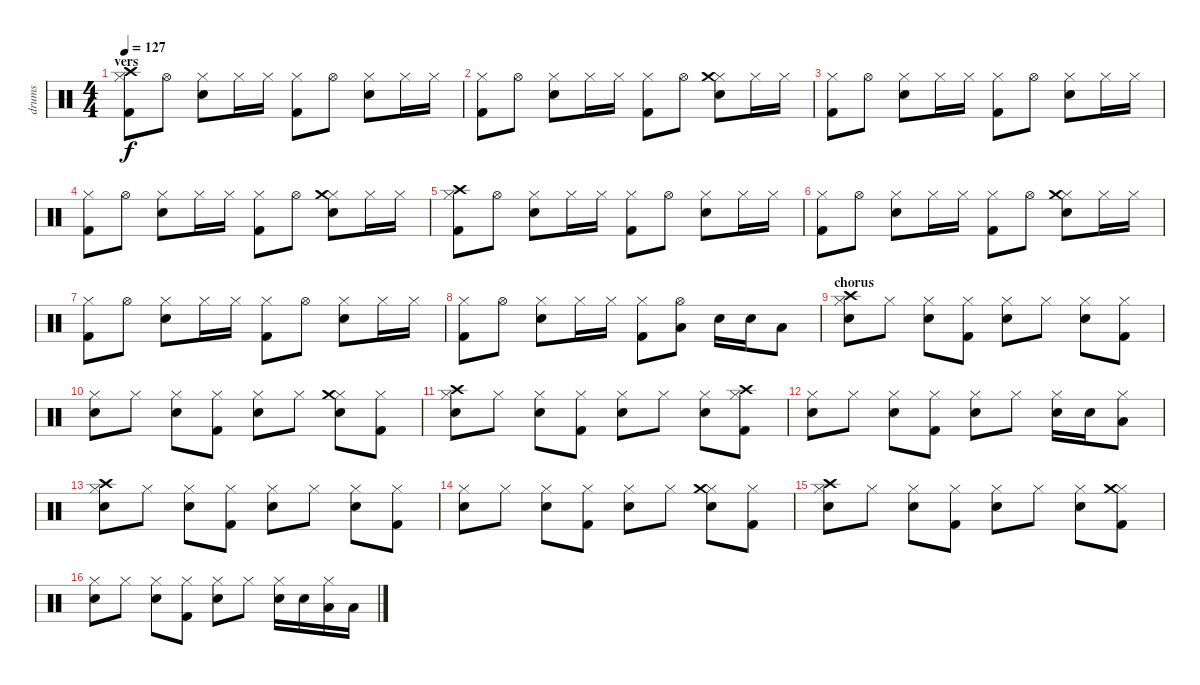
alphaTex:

\track ("drums" "drums") {instrument percussion}
\staff {score}
\articulation defaults
\ts (4 4)
\section ("" "vers")
\tempo 127
\clef neutral
\ks c
("Kick (hit) 2" "Crash high (hit)" "Hi-Hat (closed)").8{dy f} "Hi-Hat (open)".8 ("Electric Snare (hit)" "Hi-Hat (closed)").8 "Hi-Hat (closed)".16 "Hi-Hat (closed)".16 ("Kick (hit) 2" "Hi-Hat (closed)").8 "Hi-Hat (open)".8 ("Electric Snare (hit)" "Hi-Hat (closed)").8 "Hi-Hat (closed)".16 "Hi-Hat (closed)".16 |
("Kick (hit) 2" "Hi-Hat (closed)").8 "Hi-Hat (open)".8 ("Electric Snare (hit)" "Hi-Hat (closed)").8 "Hi-Hat (closed)".16 "Hi-Hat (closed)".16 ("Kick (hit) 2" "Hi-Hat (closed)").8 "Hi-Hat (open)".8 ("Electric Snare (hit)" "Hi-Hat (closed)" "Crash medium (hit)").8 "Hi-Hat (closed)".16 "Hi-Hat (closed)".16 |
("Kick (hit) 2" "Hi-Hat (closed)").8 "Hi-Hat (open)".8 ("Electric Snare (hit)" "Hi-Hat (closed)").8 "Hi-Hat (closed)".16 "Hi-Hat (closed)".16 ("Kick (hit) 2" "Hi-Hat (closed)").8 "Hi-Hat (open)".8 ("Electric Snare (hit)" "Hi-Hat (closed)").8 "Hi-Hat (closed)".16 "Hi-Hat (closed)".16 |
("Kick (hit) 2" "Hi-Hat (closed)").8 "Hi-Hat (open)".8 ("Electric Snare (hit)" "Hi-Hat (closed)").8 "Hi-Hat (closed)".16 "Hi-Hat (closed)".16 ("Kick (hit) 2" "Hi-Hat (closed)").8 "Hi-Hat (open)".8 ("Electric Snare (hit)" "Hi-Hat (closed)" "Crash medium (hit)").8 "Hi-Hat (closed)".16 "Hi-Hat (closed)".16 |
("Kick (hit) 2" "Crash high (hit)" "Hi-Hat (closed)").8 "Hi-Hat (open)".8 ("Electric Snare (hit)" "Hi-Hat (closed)").8 "Hi-Hat (closed)".16 "Hi-Hat (closed)".16 ("Kick (hit) 2" "Hi-Hat (closed)").8 "Hi-Hat (open)".8 ("Electric Snare (hit)" "Hi-Hat (closed)").8 "Hi-Hat (closed)".16 "Hi-Hat (closed)".16 |
("Kick (hit) 2" "Hi-Hat (closed)").8 "Hi-Hat (open)".8 ("Electric Snare (hit)" "Hi-Hat (closed)").8 "Hi-Hat (closed)".16 "Hi-Hat (closed)".16 ("Kick (hit) 2" "Hi-Hat (closed)").8 "Hi-Hat (open)".8 ("Electric Snare (hit)" "Hi-Hat (closed)" "Crash medium (hit)").8 "Hi-Hat (closed)".16 "Hi-Hat (closed)".16 |
("Kick (hit) 2" "Hi-Hat (closed)").8 "Hi-Hat (open)".8 ("Electric Snare (hit)" "Hi-Hat (closed)").8 "Hi-Hat (closed)".16 "Hi-Hat (closed)".16 ("Kick (hit) 2" "Hi-Hat (closed)").8 "Hi-Hat (open)".8 ("Electric Snare (hit)" "Hi-Hat (closed)").8 "Hi-Hat (closed)".16 "Hi-Hat (closed)".16 |
("Kick (hit) 2" "Hi-Hat (closed)").8 "Hi-Hat (open)".8 ("Electric Snare (hit)" "Hi-Hat (closed)").8 "Hi-Hat (closed)".16 "Hi-Hat (closed)".16 ("Kick (hit) 2" "Hi-Hat (closed)").8 ("Low Tom (hit)" "Hi-Hat (open)").8 "Electric Snare (hit)".16 "Electric Snare (hit)".16 "Low Tom (hit)".8 |
\section ("" "chorus")
("Electric Snare (hit)" "Hi-Hat (closed)" "Crash high (hit)").8 "Hi-Hat (closed)".8 ("Electric Snare (hit)" "Hi-Hat (closed)").8 ("Kick (hit) 2" "Hi-Hat (closed)").8 ("Electric Snare (hit)" "Hi-Hat (closed)").8 "Hi-Hat (closed)".8 ("Electric Snare (hit)" "Hi-Hat (closed)").8 ("Kick (hit) 2" "Hi-Hat (closed)").8 |
("Electric Snare (hit)" "Hi-Hat (closed)").8 "Hi-Hat (closed)".8 ("Electric Snare (hit)" "Hi-Hat (closed)").8 ("Kick (hit) 2" "Hi-Hat (closed)").8 ("Electric Snare (hit)" "Hi-Hat (closed)").8 "Hi-Hat (closed)".8 ("Electric Snare (hit)" "Hi-Hat (closed)" "Crash medium (hit)").8 ("Kick (hit) 2" "Hi-Hat (closed)").8 |
("Electric Snare (hit)" "Hi-Hat (closed)" "Crash high (hit)").8 "Hi-Hat (closed)".8 ("Electric Snare (hit)" "Hi-Hat (closed)").8 ("Kick (hit) 2" "Hi-Hat (closed)").8 ("Electric Snare (hit)" "Hi-Hat (closed)").8 "Hi-Hat (closed)".8 ("Electric Snare (hit)" "Hi-Hat (closed)").8 ("Kick (hit) 2" "Hi-Hat (closed)" "Crash high (hit)").8 |
("Electric Snare (hit)" "Hi-Hat (closed)").8 "Hi-Hat (closed)".8 ("Electric Snare (hit)" "Hi-Hat (closed)").8 ("Kick (hit) 2" "Hi-Hat (closed)").8 ("Electric Snare (hit)" "Hi-Hat (closed)").8 "Hi-Hat (closed)".8 ("Electric Snare (hit)" "Hi-Hat (closed)").16 "Electric Snare (hit)".16 ("Low Tom (hit)" "Hi-Hat (closed)").8 |
("Electric Snare (hit)" "Hi-Hat (closed)" "Crash high (hit)").8 "Hi-Hat (closed)".8 ("Electric Snare (hit)" "Hi-Hat (closed)").8 ("Kick (hit) 2" "Hi-Hat (closed)").8 ("Electric Snare (hit)" "Hi-Hat (closed)").8 "Hi-Hat (closed)".8 ("Electric Snare (hit)" "Hi-Hat (closed)").8 ("Kick (hit) 2" "Hi-Hat (closed)").8 |
("Electric Snare (hit)" "Hi-Hat (closed)").8 "Hi-Hat (closed)".8 ("Electric Snare (hit)" "Hi-Hat (closed)").8 ("Kick (hit) 2" "Hi-Hat (closed)").8 ("Electric Snare (hit)" "Hi-Hat (closed)").8 "Hi-Hat (closed)".8 ("Electric Snare (hit)" "Hi-Hat (closed)" "Crash medium (hit)").8 ("Kick (hit) 2" "Hi-Hat (closed)").8 |
("Electric Snare (hit)" "Hi-Hat (closed)" "Crash high (hit)").8 "Hi-Hat (closed)".8 ("Electric Snare (hit)" "Hi-Hat (closed)").8 ("Kick (hit) 2" "Hi-Hat (closed)").8 ("Electric Snare (hit)" "Hi-Hat (closed)").8 "Hi-Hat (closed)".8 ("Electric Snare (hit)" "Hi-Hat (closed)").8 ("Kick (hit) 2" "Hi-Hat (closed)" "Crash medium (hit)").8 |
("Electric Snare (hit)" "Hi-Hat (closed)").8 "Hi-Hat (closed)".8 ("Electric Snare (hit)" "Hi-Hat (closed)").8 ("Kick (hit) 2" "Hi-Hat (closed)").8 ("Electric Snare (hit)" "Hi-Hat (closed)").8 "Hi-Hat (closed)".8 ("Electric Snare (hit)" "Hi-Hat (closed)").16 "Electric Snare (hit)".16 ("Low Tom (hit)" "Hi-Hat (closed)").16 "Low Floor Tom (hit)".16
